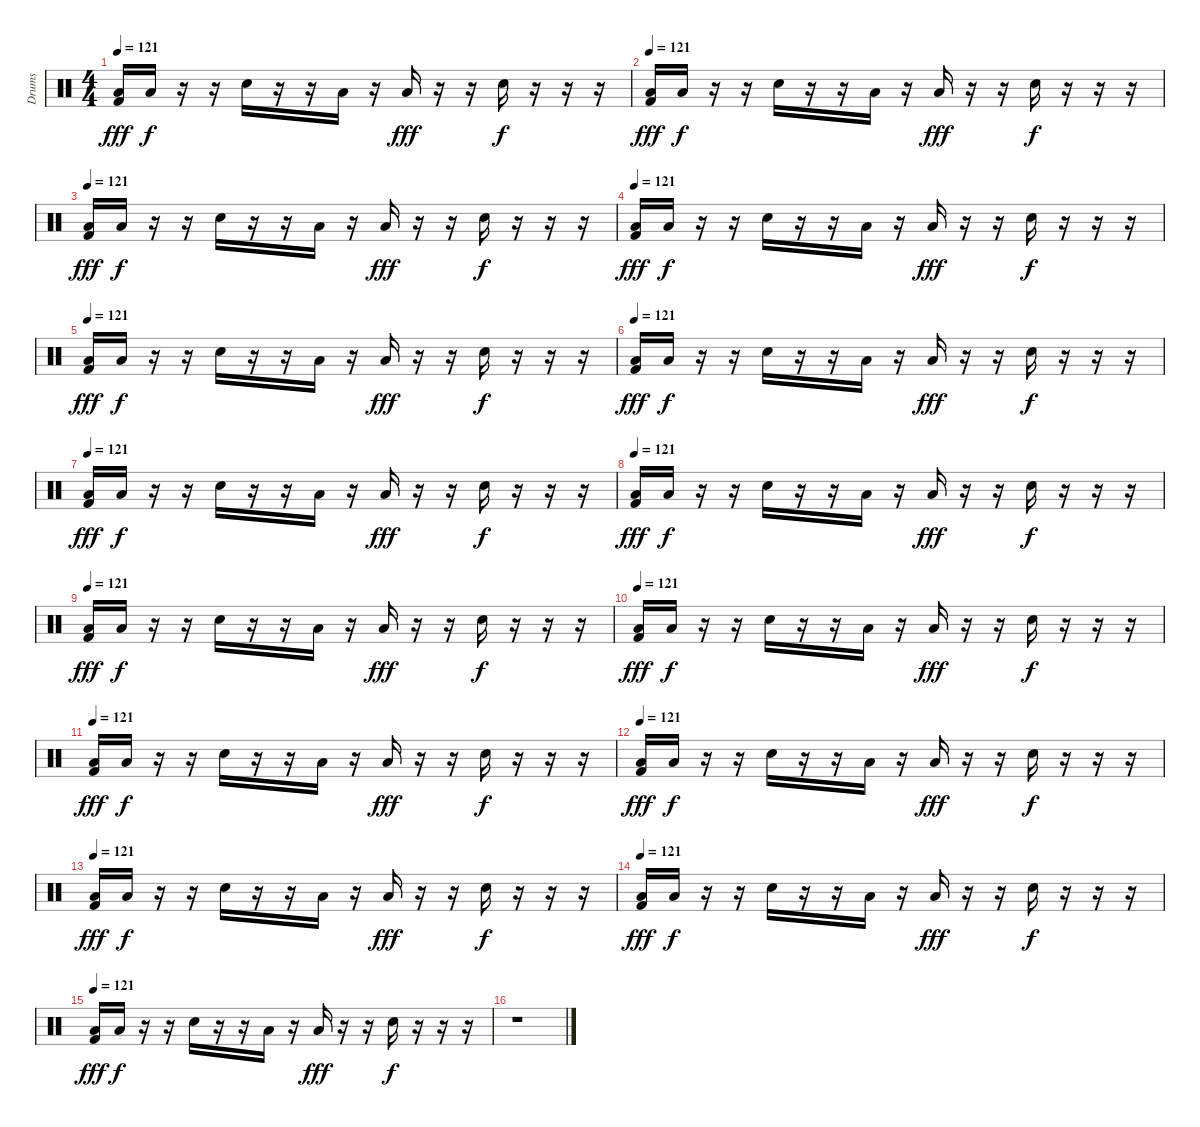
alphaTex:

\track ("Drums" "Drums") {instrument percussion}
\staff {score}
\articulation defaults
\ts (4 4)
\tempo 121
\clef neutral
\ks c
("Kick (hit) 2" "Low Tom (hit)").16{dy fff} "Low Tom (hit)".16{dy f} r.16 r.16 "Snare (hit) 2".16 r.16 r.16 "Low Tom (hit)".16 r.16 "Low Tom (hit)".16{dy fff} r.16 r.16 "Snare (hit) 2".16{dy f} r.16 r.16 r.16 |
\tempo 121
("Kick (hit) 2" "Low Tom (hit)").16{dy fff} "Low Tom (hit)".16{dy f} r.16 r.16 "Snare (hit) 2".16 r.16 r.16 "Low Tom (hit)".16 r.16 "Low Tom (hit)".16{dy fff} r.16 r.16 "Snare (hit) 2".16{dy f} r.16 r.16 r.16 |
\tempo 121
("Kick (hit) 2" "Low Tom (hit)").16{dy fff volume 15} "Low Tom (hit)".16{dy f} r.16 r.16 "Snare (hit) 2".16 r.16 r.16 "Low Tom (hit)".16 r.16 "Low Tom (hit)".16{dy fff} r.16 r.16 "Snare (hit) 2".16{dy f} r.16 r.16 r.16 |
\tempo 121
("Kick (hit) 2" "Low Tom (hit)").16{dy fff} "Low Tom (hit)".16{dy f} r.16 r.16 "Snare (hit) 2".16 r.16 r.16 "Low Tom (hit)".16 r.16 "Low Tom (hit)".16{dy fff} r.16 r.16 "Snare (hit) 2".16{dy f} r.16 r.16 r.16 |
\tempo 121
("Kick (hit) 2" "Low Tom (hit)").16{dy fff volume 13} "Low Tom (hit)".16{dy f} r.16 r.16 "Snare (hit) 2".16 r.16 r.16 "Low Tom (hit)".16 r.16 "Low Tom (hit)".16{dy fff} r.16 r.16 "Snare (hit) 2".16{dy f} r.16 r.16 r.16 |
\tempo 121
("Kick (hit) 2" "Low Tom (hit)").16{dy fff} "Low Tom (hit)".16{dy f} r.16 r.16 "Snare (hit) 2".16 r.16 r.16 "Low Tom (hit)".16 r.16 "Low Tom (hit)".16{dy fff} r.16 r.16 "Snare (hit) 2".16{dy f} r.16 r.16 r.16 |
\tempo 121
("Kick (hit) 2" "Low Tom (hit)").16{dy fff volume 13} "Low Tom (hit)".16{dy f} r.16 r.16 "Snare (hit) 2".16 r.16 r.16 "Low Tom (hit)".16 r.16 "Low Tom (hit)".16{dy fff} r.16 r.16 "Snare (hit) 2".16{dy f} r.16 r.16 r.16 |
\tempo 121
("Kick (hit) 2" "Low Tom (hit)").16{dy fff} "Low Tom (hit)".16{dy f} r.16 r.16 "Snare (hit) 2".16 r.16 r.16 "Low Tom (hit)".16 r.16 "Low Tom (hit)".16{dy fff} r.16 r.16 "Snare (hit) 2".16{dy f} r.16 r.16 r.16 |
\tempo 121
("Kick (hit) 2" "Low Tom (hit)").16{dy fff volume 9} "Low Tom (hit)".16{dy f} r.16 r.16 "Snare (hit) 2".16 r.16 r.16 "Low Tom (hit)".16 r.16 "Low Tom (hit)".16{dy fff} r.16 r.16 "Snare (hit) 2".16{dy f} r.16 r.16 r.16 |
\tempo 121
("Kick (hit) 2" "Low Tom (hit)").16{dy fff} "Low Tom (hit)".16{dy f} r.16 r.16 "Snare (hit) 2".16 r.16 r.16 "Low Tom (hit)".16 r.16 "Low Tom (hit)".16{dy fff} r.16 r.16 "Snare (hit) 2".16{dy f} r.16 r.16 r.16 |
\tempo 121
("Kick (hit) 2" "Low Tom (hit)").16{dy fff volume 8} "Low Tom (hit)".16{dy f} r.16 r.16 "Snare (hit) 2".16 r.16 r.16 "Low Tom (hit)".16 r.16 "Low Tom (hit)".16{dy fff} r.16 r.16 "Snare (hit) 2".16{dy f} r.16 r.16 r.16 |
\tempo 121
("Kick (hit) 2" "Low Tom (hit)").16{dy fff} "Low Tom (hit)".16{dy f} r.16 r.16 "Snare (hit) 2".16 r.16 r.16 "Low Tom (hit)".16 r.16 "Low Tom (hit)".16{dy fff} r.16 r.16 "Snare (hit) 2".16{dy f} r.16 r.16 r.16 |
\tempo 121
("Kick (hit) 2" "Low Tom (hit)").16{dy fff volume 4} "Low Tom (hit)".16{dy f} r.16 r.16 "Snare (hit) 2".16 r.16 r.16 "Low Tom (hit)".16 r.16 "Low Tom (hit)".16{dy fff} r.16 r.16 "Snare (hit) 2".16{dy f} r.16 r.16 r.16 |
\tempo 121
("Kick (hit) 2" "Low Tom (hit)").16{dy fff volume 2} "Low Tom (hit)".16{dy f} r.16 r.16 "Snare (hit) 2".16 r.16 r.16 "Low Tom (hit)".16 r.16 "Low Tom (hit)".16{dy fff} r.16 r.16 "Snare (hit) 2".16{dy f} r.16 r.16 r.16 |
\tempo 121
("Kick (hit) 2" "Low Tom (hit)").16{dy fff volume 0} "Low Tom (hit)".16{dy f} r.16 r.16 "Snare (hit) 2".16 r.16 r.16 "Low Tom (hit)".16 r.16 "Low Tom (hit)".16{dy fff} r.16 r.16 "Snare (hit) 2".16{dy f} r.16 r.16 r.16 |
r.1
